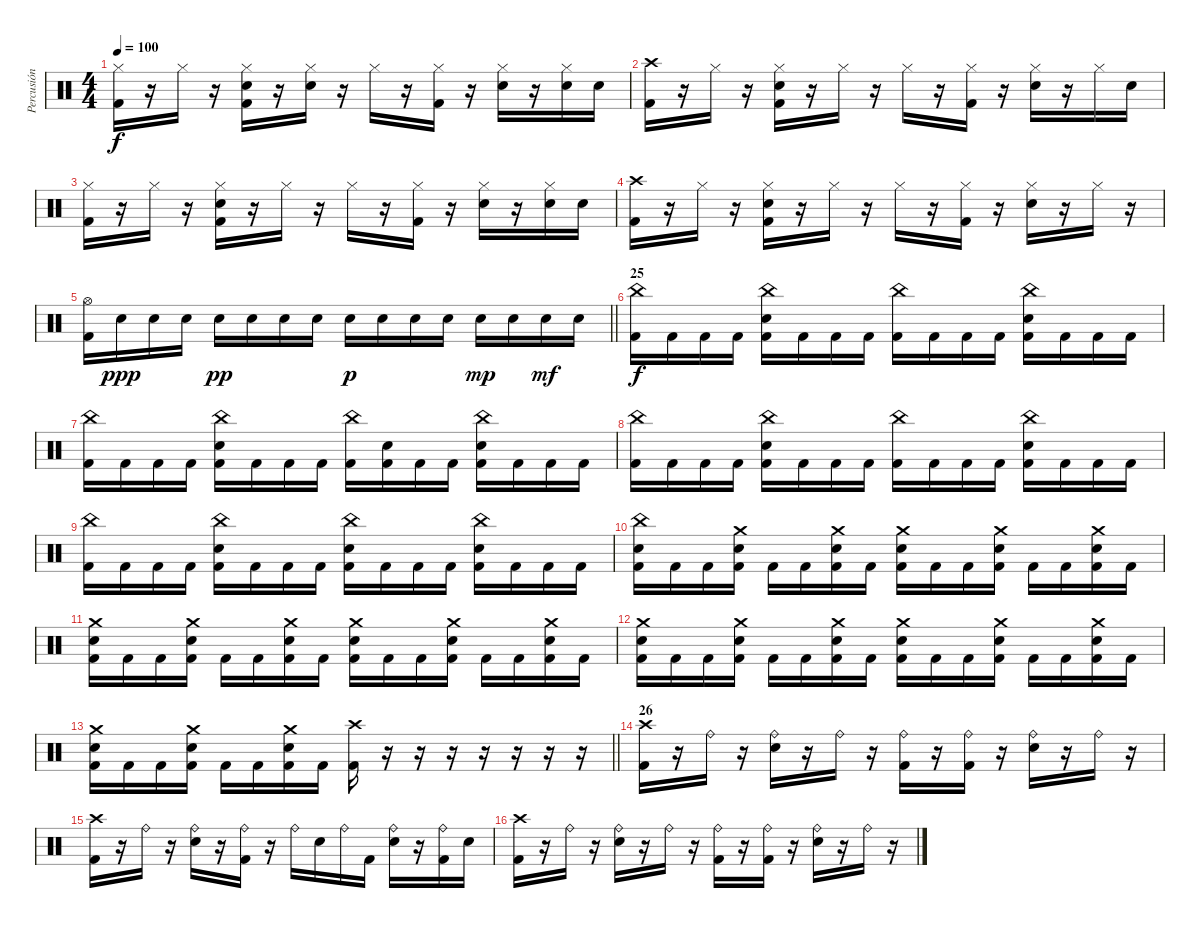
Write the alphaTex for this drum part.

\track ("Percusión" "Percusión") {instrument percussion}
\staff {score}
\articulation defaults
\ts (4 4)
\tempo 100
\clef neutral
\ks c
("Hi-Hat (closed)" "Kick (hit) 2").16{dy f} r.16 "Hi-Hat (closed)".16 r.16 ("Hi-Hat (closed)" "Electric Snare (hit)" "Kick (hit) 2").16 r.16 ("Hi-Hat (closed)" "Electric Snare (hit)").16 r.16 "Hi-Hat (closed)".16 r.16 ("Hi-Hat (closed)" "Kick (hit) 2").16 r.16 ("Hi-Hat (closed)" "Electric Snare (hit)").16 r.16 ("Hi-Hat (closed)" "Electric Snare (hit)").16 "Electric Snare (hit)".16 |
("Crash high (hit)" "Kick (hit) 2").16 r.16 "Hi-Hat (closed)".16 r.16 ("Hi-Hat (closed)" "Electric Snare (hit)" "Kick (hit) 2").16 r.16 "Hi-Hat (closed)".16 r.16 "Hi-Hat (closed)".16 r.16 ("Hi-Hat (closed)" "Kick (hit) 2").16 r.16 ("Hi-Hat (closed)" "Electric Snare (hit)").16 r.16 "Hi-Hat (closed)".16 "Electric Snare (hit)".16 |
("Hi-Hat (closed)" "Kick (hit) 2").16 r.16 "Hi-Hat (closed)".16 r.16 ("Hi-Hat (closed)" "Electric Snare (hit)" "Kick (hit) 2").16 r.16 "Hi-Hat (closed)".16 r.16 "Hi-Hat (closed)".16 r.16 ("Hi-Hat (closed)" "Kick (hit) 2").16 r.16 ("Hi-Hat (closed)" "Electric Snare (hit)").16 r.16 ("Hi-Hat (closed)" "Electric Snare (hit)").16 "Electric Snare (hit)".16 |
("Crash high (hit)" "Kick (hit) 2").16 r.16 "Hi-Hat (closed)".16 r.16 ("Hi-Hat (closed)" "Electric Snare (hit)" "Kick (hit) 2").16 r.16 "Hi-Hat (closed)".16 r.16 "Hi-Hat (closed)".16 r.16 ("Hi-Hat (closed)" "Kick (hit) 2").16 r.16 ("Hi-Hat (closed)" "Electric Snare (hit)").16 r.16 "Hi-Hat (closed)".16 r.16 |
\barLineRight lightlight
("Hi-Hat (open)" "Kick (hit) 2").16 "Electric Snare (hit)".16{dy ppp} "Electric Snare (hit)".16 "Electric Snare (hit)".16 "Electric Snare (hit)".16{dy pp} "Electric Snare (hit)".16 "Electric Snare (hit)".16 "Electric Snare (hit)".16 "Electric Snare (hit)".16{dy p} "Electric Snare (hit)".16 "Electric Snare (hit)".16 "Electric Snare (hit)".16 "Electric Snare (hit)".16{dy mp} "Electric Snare (hit)".16 "Electric Snare (hit)".16{dy mf} "Electric Snare (hit)".16 |
\section ("" "25")
("China (hit)" "Kick (hit) 2").16{dy f} "Kick (hit) 2".16 "Kick (hit) 2".16 "Kick (hit) 2".16 ("China (hit)" "Electric Snare (hit)" "Kick (hit) 2").16 "Kick (hit) 2".16 "Kick (hit) 2".16 "Kick (hit) 2".16 ("China (hit)" "Kick (hit) 2").16 "Kick (hit) 2".16 "Kick (hit) 2".16 "Kick (hit) 2".16 ("China (hit)" "Electric Snare (hit)" "Kick (hit) 2").16 "Kick (hit) 2".16 "Kick (hit) 2".16 "Kick (hit) 2".16 |
("China (hit)" "Kick (hit) 2").16 "Kick (hit) 2".16 "Kick (hit) 2".16 "Kick (hit) 2".16 ("China (hit)" "Electric Snare (hit)" "Kick (hit) 2").16 "Kick (hit) 2".16 "Kick (hit) 2".16 "Kick (hit) 2".16 ("China (hit)" "Kick (hit) 2").16 ("Electric Snare (hit)" "Kick (hit) 2").16 "Kick (hit) 2".16 "Kick (hit) 2".16 ("China (hit)" "Electric Snare (hit)" "Kick (hit) 2").16 "Kick (hit) 2".16 "Kick (hit) 2".16 "Kick (hit) 2".16 |
("China (hit)" "Kick (hit) 2").16 "Kick (hit) 2".16 "Kick (hit) 2".16 "Kick (hit) 2".16 ("China (hit)" "Electric Snare (hit)" "Kick (hit) 2").16 "Kick (hit) 2".16 "Kick (hit) 2".16 "Kick (hit) 2".16 ("China (hit)" "Kick (hit) 2").16 "Kick (hit) 2".16 "Kick (hit) 2".16 "Kick (hit) 2".16 ("China (hit)" "Electric Snare (hit)" "Kick (hit) 2").16 "Kick (hit) 2".16 "Kick (hit) 2".16 "Kick (hit) 2".16 |
("China (hit)" "Kick (hit) 2").16 "Kick (hit) 2".16 "Kick (hit) 2".16 "Kick (hit) 2".16 ("China (hit)" "Electric Snare (hit)" "Kick (hit) 2").16 "Kick (hit) 2".16 "Kick (hit) 2".16 "Kick (hit) 2".16 ("China (hit)" "Electric Snare (hit)" "Kick (hit) 2").16 "Kick (hit) 2".16 "Kick (hit) 2".16 "Kick (hit) 2".16 ("China (hit)" "Electric Snare (hit)" "Kick (hit) 2").16 "Kick (hit) 2".16 "Kick (hit) 2".16 "Kick (hit) 2".16 |
("China (hit)" "Electric Snare (hit)" "Kick (hit) 2").16 "Kick (hit) 2".16 "Kick (hit) 2".16 ("Crash medium (hit)" "Electric Snare (hit)" "Kick (hit) 2").16 "Kick (hit) 2".16 "Kick (hit) 2".16 ("Crash medium (hit)" "Electric Snare (hit)" "Kick (hit) 2").16 "Kick (hit) 2".16 ("Crash medium (hit)" "Electric Snare (hit)" "Kick (hit) 2").16 "Kick (hit) 2".16 "Kick (hit) 2".16 ("Crash medium (hit)" "Electric Snare (hit)" "Kick (hit) 2").16 "Kick (hit) 2".16 "Kick (hit) 2".16 ("Crash medium (hit)" "Electric Snare (hit)" "Kick (hit) 2").16 "Kick (hit) 2".16 |
("Crash medium (hit)" "Electric Snare (hit)" "Kick (hit) 2").16 "Kick (hit) 2".16 "Kick (hit) 2".16 ("Crash medium (hit)" "Electric Snare (hit)" "Kick (hit) 2").16 "Kick (hit) 2".16 "Kick (hit) 2".16 ("Crash medium (hit)" "Electric Snare (hit)" "Kick (hit) 2").16 "Kick (hit) 2".16 ("Crash medium (hit)" "Electric Snare (hit)" "Kick (hit) 2").16 "Kick (hit) 2".16 "Kick (hit) 2".16 ("Crash medium (hit)" "Electric Snare (hit)" "Kick (hit) 2").16 "Kick (hit) 2".16 "Kick (hit) 2".16 ("Crash medium (hit)" "Electric Snare (hit)" "Kick (hit) 2").16 "Kick (hit) 2".16 |
("Crash medium (hit)" "Electric Snare (hit)" "Kick (hit) 2").16 "Kick (hit) 2".16 "Kick (hit) 2".16 ("Crash medium (hit)" "Electric Snare (hit)" "Kick (hit) 2").16 "Kick (hit) 2".16 "Kick (hit) 2".16 ("Crash medium (hit)" "Electric Snare (hit)" "Kick (hit) 2").16 "Kick (hit) 2".16 ("Crash medium (hit)" "Electric Snare (hit)" "Kick (hit) 2").16 "Kick (hit) 2".16 "Kick (hit) 2".16 ("Crash medium (hit)" "Electric Snare (hit)" "Kick (hit) 2").16 "Kick (hit) 2".16 "Kick (hit) 2".16 ("Crash medium (hit)" "Electric Snare (hit)" "Kick (hit) 2").16 "Kick (hit) 2".16 |
\barLineRight lightlight
("Crash medium (hit)" "Electric Snare (hit)" "Kick (hit) 2").16 "Kick (hit) 2".16 "Kick (hit) 2".16 ("Crash medium (hit)" "Electric Snare (hit)" "Kick (hit) 2").16 "Kick (hit) 2".16 "Kick (hit) 2".16 ("Crash medium (hit)" "Electric Snare (hit)" "Kick (hit) 2").16 "Kick (hit) 2".16 ("Crash high (hit)" "Kick (hit) 2").16 r.16 r.16 r.16 r.16 r.16 r.16 r.16 |
\section ("" "26")
("Crash high (hit)" "Kick (hit) 2").16 r.16 "Ride (bell)".16 r.16 ("Ride (bell)" "Electric Snare (hit)").16 r.16 "Ride (bell)".16 r.16 ("Ride (bell)" "Kick (hit) 2").16 r.16 ("Ride (bell)" "Kick (hit) 2").16 r.16 ("Ride (bell)" "Electric Snare (hit)").16 r.16 "Ride (bell)".16 r.16 |
("Crash high (hit)" "Kick (hit) 2").16 r.16 "Ride (bell)".16 r.16 ("Ride (bell)" "Electric Snare (hit)").16 r.16 ("Ride (bell)" "Kick (hit) 2").16 r.16 "Ride (bell)".16 "Electric Snare (hit)".16 "Ride (bell)".16 "Kick (hit) 2".16 ("Ride (bell)" "Electric Snare (hit)").16 r.16 ("Ride (bell)" "Kick (hit) 2").16 "Electric Snare (hit)".16 |
("Crash high (hit)" "Kick (hit) 2").16 r.16 "Ride (bell)".16 r.16 ("Ride (bell)" "Electric Snare (hit)").16 r.16 "Ride (bell)".16 r.16 ("Ride (bell)" "Kick (hit) 2").16 r.16 ("Ride (bell)" "Kick (hit) 2").16 r.16 ("Ride (bell)" "Electric Snare (hit)").16 r.16 "Ride (bell)".16 r.16
